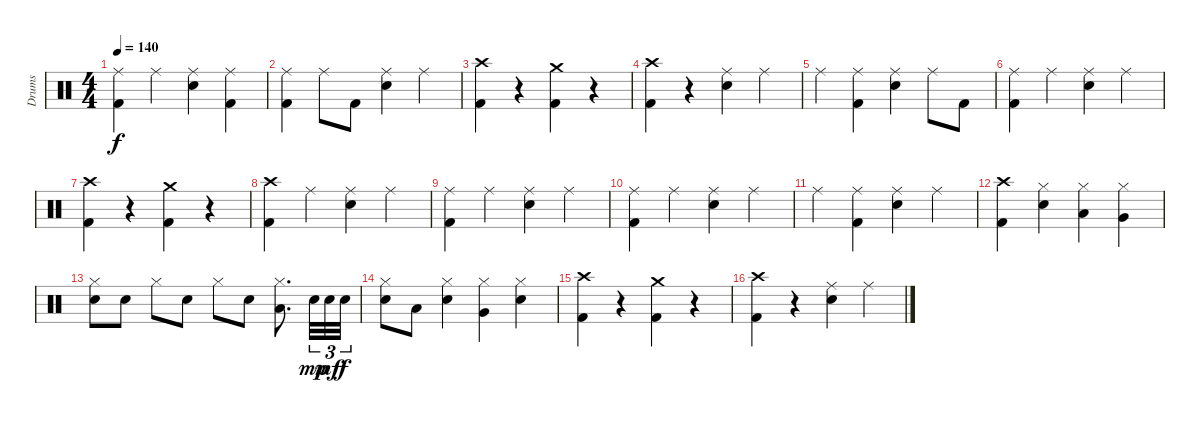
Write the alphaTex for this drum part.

\track ("Drums" "Drums") {instrument percussion}
\staff {score}
\articulation defaults
\ts (4 4)
\tempo 140
\clef neutral
\ks c
("Ride (middle)" "Kick (hit) 2").4{dy f} "Ride (middle)".4 ("Ride (middle)" "Electric Snare (hit)").4 ("Ride (middle)" "Kick (hit) 2").4 |
("Ride (middle)" "Kick (hit) 2").4 "Ride (middle)".8 "Kick (hit) 2".8 ("Ride (middle)" "Electric Snare (hit)").4 "Ride (middle)".4 |
("Crash high (hit)" "Kick (hit) 2").4 r.4 ("Crash medium (hit)" "Kick (hit) 2").4 r.4 |
("Crash high (hit)" "Kick (hit) 2").4 r.4 ("Ride (middle)" "Electric Snare (hit)").4 "Ride (middle)".4 |
"Ride (middle)".4 ("Ride (middle)" "Kick (hit) 2").4 ("Ride (middle)" "Electric Snare (hit)").4 "Ride (middle)".8 "Kick (hit) 2".8 |
("Ride (middle)" "Kick (hit) 2").4 "Ride (middle)".4 ("Ride (middle)" "Electric Snare (hit)").4 "Ride (middle)".4 |
("Crash high (hit)" "Kick (hit) 2").4 r.4 ("Crash medium (hit)" "Kick (hit) 2").4 r.4 |
("Crash high (hit)" "Kick (hit) 2").4 "Ride (middle)".4 ("Ride (middle)" "Electric Snare (hit)").4 "Ride (middle)".4 |
("Ride (middle)" "Kick (hit) 2").4 "Ride (middle)".4 ("Ride (middle)" "Electric Snare (hit)").4 "Ride (middle)".4 |
("Ride (middle)" "Kick (hit) 2").4 "Ride (middle)".4 ("Ride (middle)" "Electric Snare (hit)").4 "Ride (middle)".4 |
"Ride (middle)".4 ("Ride (middle)" "Kick (hit) 2").4 ("Ride (middle)" "Electric Snare (hit)").4 "Ride (middle)".4 |
("Crash high (hit)" "Kick (hit) 2").4 ("Hi-Hat (closed)" "Electric Snare (hit)").4 ("Hi-Hat (closed)" "Low Tom (hit)").4 ("Hi-Hat (closed)" "Very Low Tom (hit)").4 |
("Hi-Hat (closed)" "Electric Snare (hit)").8 "Electric Snare (hit)".8 "Hi-Hat (closed)".8 "Electric Snare (hit)".8 "Hi-Hat (closed)".8 "Electric Snare (hit)".8 ("Hi-Hat (closed)" "Low Tom (hit)").8{d} "Electric Snare (hit)".32{tu (3 2) dy mp} "Electric Snare (hit)".32{tu (3 2) dy mf} "Electric Snare (hit)".32{tu (3 2) dy f} |
("Hi-Hat (closed)" "Electric Snare (hit)").8 "Low Tom (hit)".8 ("Hi-Hat (closed)" "Electric Snare (hit)").4 ("Hi-Hat (closed)" "Very Low Tom (hit)").4 ("Hi-Hat (closed)" "Electric Snare (hit)").4 |
("Crash high (hit)" "Kick (hit) 2").4 r.4 ("Crash medium (hit)" "Kick (hit) 2").4 r.4 |
("Crash high (hit)" "Kick (hit) 2").4 r.4 ("Ride (middle)" "Electric Snare (hit)").4 "Ride (middle)".4
